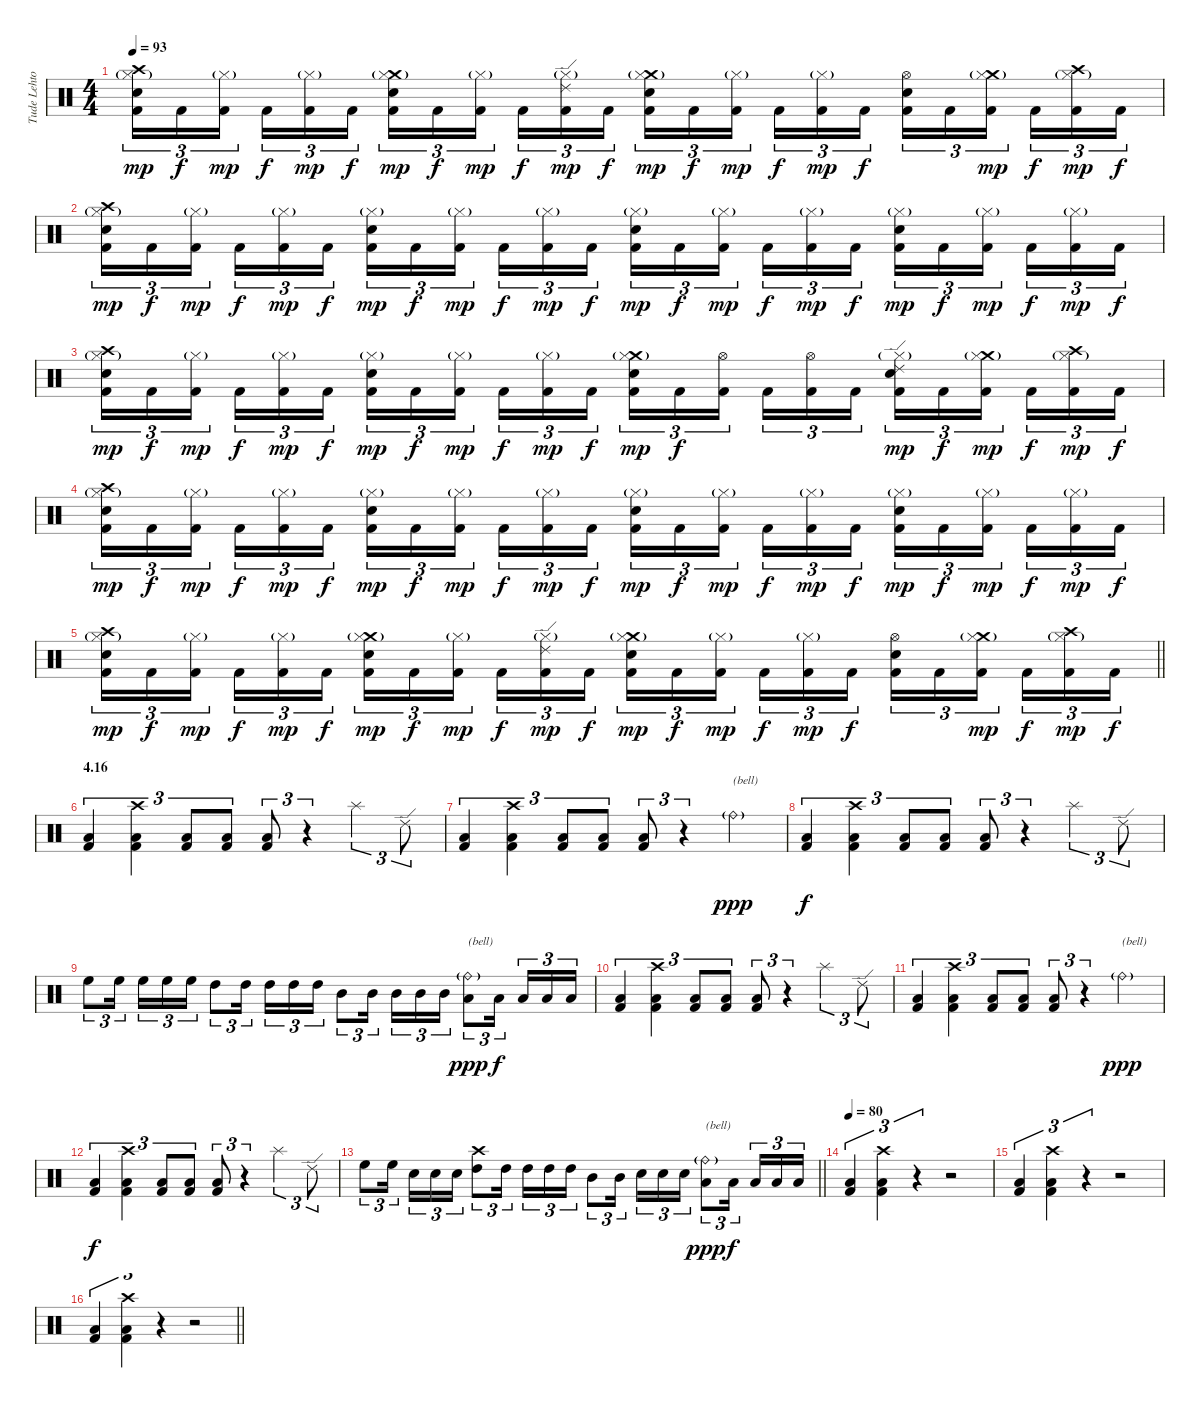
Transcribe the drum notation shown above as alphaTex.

\track ("Tude Lehtonen" "Tude Lehto") {instrument percussion}
\staff {score}
\articulation defaults
\ts (4 4)
\tempo 93
\clef neutral
\ks c
("Crash high (hit)" "Hi-Hat (closed)"{g} "Electric Snare (hit)" "Kick (hit) 2").16{tu (3 2) dy mp} "Kick (hit) 2".16{tu (3 2) dy f} ("Hi-Hat (closed)"{g} "Kick (hit) 2").16{tu (3 2) dy mp} "Kick (hit) 2".16{tu (3 2) dy f} ("Hi-Hat (closed)"{g} "Kick (hit) 2").16{tu (3 2) dy mp} "Kick (hit) 2".16{tu (3 2) dy f} ("Crash medium (hit)" "Hi-Hat (closed)"{g} "Electric Snare (hit)" "Kick (hit) 2").16{tu (3 2) dy mp} "Kick (hit) 2".16{tu (3 2) dy f} ("Hi-Hat (closed)"{g} "Kick (hit) 2").16{tu (3 2) dy mp} "Kick (hit) 2".16{tu (3 2) dy f} ("Ride (edge) 2" "Hi-Hat (closed)"{g} "Kick (hit) 2").16{tu (3 2) dy mp} "Kick (hit) 2".16{tu (3 2) dy f} ("Crash medium (hit)" "Hi-Hat (closed)"{g} "Electric Snare (hit)" "Kick (hit) 2").16{tu (3 2) dy mp} "Kick (hit) 2".16{tu (3 2) dy f} ("Hi-Hat (closed)"{g} "Kick (hit) 2").16{tu (3 2) dy mp} "Kick (hit) 2".16{tu (3 2) dy f} ("Hi-Hat (closed)"{g} "Kick (hit) 2").16{tu (3 2) dy mp} "Kick (hit) 2".16{tu (3 2) dy f} ("Hi-Hat (open)" "Electric Snare (hit)" "Kick (hit) 2").16{tu (3 2)} "Kick (hit) 2".16{tu (3 2)} ("Crash medium (hit)" "Hi-Hat (closed)"{g} "Kick (hit) 2").16{tu (3 2) dy mp} "Kick (hit) 2".16{tu (3 2) dy f} ("Crash high (hit)" "Hi-Hat (closed)"{g} "Kick (hit) 2").16{tu (3 2) dy mp} "Kick (hit) 2".16{tu (3 2) dy f} |
("Crash high (hit)" "Hi-Hat (closed)"{g} "Electric Snare (hit)" "Kick (hit) 2").16{tu (3 2) dy mp} "Kick (hit) 2".16{tu (3 2) dy f} ("Hi-Hat (closed)"{g} "Kick (hit) 2").16{tu (3 2) dy mp} "Kick (hit) 2".16{tu (3 2) dy f} ("Hi-Hat (closed)"{g} "Kick (hit) 2").16{tu (3 2) dy mp} "Kick (hit) 2".16{tu (3 2) dy f} ("Hi-Hat (closed)"{g} "Electric Snare (hit)" "Kick (hit) 2").16{tu (3 2) dy mp} "Kick (hit) 2".16{tu (3 2) dy f} ("Hi-Hat (closed)"{g} "Kick (hit) 2").16{tu (3 2) dy mp} "Kick (hit) 2".16{tu (3 2) dy f} ("Hi-Hat (closed)"{g} "Kick (hit) 2").16{tu (3 2) dy mp} "Kick (hit) 2".16{tu (3 2) dy f} ("Hi-Hat (closed)"{g} "Electric Snare (hit)" "Kick (hit) 2").16{tu (3 2) dy mp} "Kick (hit) 2".16{tu (3 2) dy f} ("Hi-Hat (closed)"{g} "Kick (hit) 2").16{tu (3 2) dy mp} "Kick (hit) 2".16{tu (3 2) dy f} ("Hi-Hat (closed)"{g} "Kick (hit) 2").16{tu (3 2) dy mp} "Kick (hit) 2".16{tu (3 2) dy f} ("Hi-Hat (closed)"{g} "Electric Snare (hit)" "Kick (hit) 2").16{tu (3 2) dy mp} "Kick (hit) 2".16{tu (3 2) dy f} ("Hi-Hat (closed)"{g} "Kick (hit) 2").16{tu (3 2) dy mp} "Kick (hit) 2".16{tu (3 2) dy f} ("Hi-Hat (closed)"{g} "Kick (hit) 2").16{tu (3 2) dy mp} "Kick (hit) 2".16{tu (3 2) dy f} |
("Crash high (hit)" "Hi-Hat (closed)"{g} "Electric Snare (hit)" "Kick (hit) 2").16{tu (3 2) dy mp} "Kick (hit) 2".16{tu (3 2) dy f} ("Hi-Hat (closed)"{g} "Kick (hit) 2").16{tu (3 2) dy mp} "Kick (hit) 2".16{tu (3 2) dy f} ("Hi-Hat (closed)"{g} "Kick (hit) 2").16{tu (3 2) dy mp} "Kick (hit) 2".16{tu (3 2) dy f} ("Hi-Hat (closed)"{g} "Electric Snare (hit)" "Kick (hit) 2").16{tu (3 2) dy mp} "Kick (hit) 2".16{tu (3 2) dy f} ("Hi-Hat (closed)"{g} "Kick (hit) 2").16{tu (3 2) dy mp} "Kick (hit) 2".16{tu (3 2) dy f} ("Hi-Hat (closed)"{g} "Kick (hit) 2").16{tu (3 2) dy mp} "Kick (hit) 2".16{tu (3 2) dy f} ("Crash medium (hit)" "Hi-Hat (closed)"{g} "Electric Snare (hit)" "Kick (hit) 2").16{tu (3 2) dy mp} "Kick (hit) 2".16{tu (3 2) dy f} ("Hi-Hat (open)" "Kick (hit) 2").16{tu (3 2)} "Kick (hit) 2".16{tu (3 2)} ("Hi-Hat (open)" "Kick (hit) 2").16{tu (3 2)} "Kick (hit) 2".16{tu (3 2)} ("Ride (edge) 2" "Hi-Hat (closed)"{g} "Electric Snare (hit)" "Kick (hit) 2").16{tu (3 2) dy mp} "Kick (hit) 2".16{tu (3 2) dy f} ("Crash medium (hit)" "Hi-Hat (closed)"{g} "Kick (hit) 2").16{tu (3 2) dy mp} "Kick (hit) 2".16{tu (3 2) dy f} ("Crash high (hit)" "Hi-Hat (closed)"{g} "Kick (hit) 2").16{tu (3 2) dy mp} "Kick (hit) 2".16{tu (3 2) dy f} |
("Crash high (hit)" "Hi-Hat (closed)"{g} "Electric Snare (hit)" "Kick (hit) 2").16{tu (3 2) dy mp} "Kick (hit) 2".16{tu (3 2) dy f} ("Hi-Hat (closed)"{g} "Kick (hit) 2").16{tu (3 2) dy mp} "Kick (hit) 2".16{tu (3 2) dy f} ("Hi-Hat (closed)"{g} "Kick (hit) 2").16{tu (3 2) dy mp} "Kick (hit) 2".16{tu (3 2) dy f} ("Hi-Hat (closed)"{g} "Electric Snare (hit)" "Kick (hit) 2").16{tu (3 2) dy mp} "Kick (hit) 2".16{tu (3 2) dy f} ("Hi-Hat (closed)"{g} "Kick (hit) 2").16{tu (3 2) dy mp} "Kick (hit) 2".16{tu (3 2) dy f} ("Hi-Hat (closed)"{g} "Kick (hit) 2").16{tu (3 2) dy mp} "Kick (hit) 2".16{tu (3 2) dy f} ("Hi-Hat (closed)"{g} "Electric Snare (hit)" "Kick (hit) 2").16{tu (3 2) dy mp} "Kick (hit) 2".16{tu (3 2) dy f} ("Hi-Hat (closed)"{g} "Kick (hit) 2").16{tu (3 2) dy mp} "Kick (hit) 2".16{tu (3 2) dy f} ("Hi-Hat (closed)"{g} "Kick (hit) 2").16{tu (3 2) dy mp} "Kick (hit) 2".16{tu (3 2) dy f} ("Hi-Hat (closed)"{g} "Electric Snare (hit)" "Kick (hit) 2").16{tu (3 2) dy mp} "Kick (hit) 2".16{tu (3 2) dy f} ("Hi-Hat (closed)"{g} "Kick (hit) 2").16{tu (3 2) dy mp} "Kick (hit) 2".16{tu (3 2) dy f} ("Hi-Hat (closed)"{g} "Kick (hit) 2").16{tu (3 2) dy mp} "Kick (hit) 2".16{tu (3 2) dy f} |
\barLineRight lightlight
("Crash high (hit)" "Hi-Hat (closed)"{g} "Electric Snare (hit)" "Kick (hit) 2").16{tu (3 2) dy mp} "Kick (hit) 2".16{tu (3 2) dy f} ("Hi-Hat (closed)"{g} "Kick (hit) 2").16{tu (3 2) dy mp} "Kick (hit) 2".16{tu (3 2) dy f} ("Hi-Hat (closed)"{g} "Kick (hit) 2").16{tu (3 2) dy mp} "Kick (hit) 2".16{tu (3 2) dy f} ("Crash medium (hit)" "Hi-Hat (closed)"{g} "Electric Snare (hit)" "Kick (hit) 2").16{tu (3 2) dy mp} "Kick (hit) 2".16{tu (3 2) dy f} ("Hi-Hat (closed)"{g} "Kick (hit) 2").16{tu (3 2) dy mp} "Kick (hit) 2".16{tu (3 2) dy f} ("Ride (edge) 2" "Hi-Hat (closed)"{g} "Kick (hit) 2").16{tu (3 2) dy mp} "Kick (hit) 2".16{tu (3 2) dy f} ("Crash medium (hit)" "Hi-Hat (closed)"{g} "Electric Snare (hit)" "Kick (hit) 2").16{tu (3 2) dy mp} "Kick (hit) 2".16{tu (3 2) dy f} ("Hi-Hat (closed)"{g} "Kick (hit) 2").16{tu (3 2) dy mp} "Kick (hit) 2".16{tu (3 2) dy f} ("Hi-Hat (closed)"{g} "Kick (hit) 2").16{tu (3 2) dy mp} "Kick (hit) 2".16{tu (3 2) dy f} ("Hi-Hat (open)" "Electric Snare (hit)" "Kick (hit) 2").16{tu (3 2)} "Kick (hit) 2".16{tu (3 2)} ("Crash medium (hit)" "Hi-Hat (closed)"{g} "Kick (hit) 2").16{tu (3 2) dy mp} "Kick (hit) 2".16{tu (3 2) dy f} ("Crash high (hit)" "Hi-Hat (closed)"{g} "Kick (hit) 2").16{tu (3 2) dy mp} "Kick (hit) 2".16{tu (3 2) dy f} |
\section ("" "4.16")
("Low Floor Tom (hit)" "Kick (hit) 2").4{tu (3 2)} ("Crash high (hit)" "Low Floor Tom (hit)" "Kick (hit) 2").4{tu (3 2)} ("Low Floor Tom (hit)" "Kick (hit) 2").8{tu (3 2)} ("Low Floor Tom (hit)" "Kick (hit) 2").8{tu (3 2)} ("Low Floor Tom (hit)" "Kick (hit) 2").8{tu (3 2)} r.4{tu (3 2)} "Splash (hit)".4{tu (3 2)} "Ride (edge) 2".8{tu (3 2)} |
("Low Floor Tom (hit)" "Kick (hit) 2").4{tu (3 2)} ("Crash high (hit)" "Low Floor Tom (hit)" "Kick (hit) 2").4{tu (3 2)} ("Low Floor Tom (hit)" "Kick (hit) 2").8{tu (3 2)} ("Low Floor Tom (hit)" "Kick (hit) 2").8{tu (3 2)} ("Low Floor Tom (hit)" "Kick (hit) 2").8{tu (3 2)} r.4{tu (3 2)} "Ride (bell)"{g}.4{txt "(bell)" dy ppp} |
("Low Floor Tom (hit)" "Kick (hit) 2").4{tu (3 2) dy f} ("Crash high (hit)" "Low Floor Tom (hit)" "Kick (hit) 2").4{tu (3 2)} ("Low Floor Tom (hit)" "Kick (hit) 2").8{tu (3 2)} ("Low Floor Tom (hit)" "Kick (hit) 2").8{tu (3 2)} ("Low Floor Tom (hit)" "Kick (hit) 2").8{tu (3 2)} r.4{tu (3 2)} "Splash (hit)".4{tu (3 2)} "Ride (edge) 2".8{tu (3 2)} |
"High Floor Tom (hit)".8{tu (3 2)} "High Floor Tom (hit)".16{tu (3 2)} "High Floor Tom (hit)".16{tu (3 2)} "High Floor Tom (hit)".16{tu (3 2)} "High Floor Tom (hit)".16{tu (3 2)} "High Tom (hit)".8{tu (3 2)} "High Tom (hit)".16{tu (3 2)} "High Tom (hit)".16{tu (3 2)} "High Tom (hit)".16{tu (3 2)} "High Tom (hit)".16{tu (3 2)} "Mid Tom (hit)".8{tu (3 2)} "Mid Tom (hit)".16{tu (3 2)} "Mid Tom (hit)".16{tu (3 2)} "Mid Tom (hit)".16{tu (3 2)} "Mid Tom (hit)".16{tu (3 2)} ("Ride (bell)"{g} "Low Floor Tom (hit)").8{tu (3 2) txt "(bell)" dy ppp} "Low Floor Tom (hit)".16{tu (3 2) dy f} "Low Floor Tom (hit)".16{tu (3 2)} "Low Floor Tom (hit)".16{tu (3 2)} "Low Floor Tom (hit)".16{tu (3 2)} |
("Low Floor Tom (hit)" "Kick (hit) 2").4{tu (3 2)} ("Crash high (hit)" "Low Floor Tom (hit)" "Kick (hit) 2").4{tu (3 2)} ("Low Floor Tom (hit)" "Kick (hit) 2").8{tu (3 2)} ("Low Floor Tom (hit)" "Kick (hit) 2").8{tu (3 2)} ("Low Floor Tom (hit)" "Kick (hit) 2").8{tu (3 2)} r.4{tu (3 2)} "Splash (hit)".4{tu (3 2)} "Ride (edge) 2".8{tu (3 2)} |
("Low Floor Tom (hit)" "Kick (hit) 2").4{tu (3 2)} ("Crash high (hit)" "Low Floor Tom (hit)" "Kick (hit) 2").4{tu (3 2)} ("Low Floor Tom (hit)" "Kick (hit) 2").8{tu (3 2)} ("Low Floor Tom (hit)" "Kick (hit) 2").8{tu (3 2)} ("Low Floor Tom (hit)" "Kick (hit) 2").8{tu (3 2)} r.4{tu (3 2)} "Ride (bell)"{g}.4{txt "(bell)" dy ppp} |
("Low Floor Tom (hit)" "Kick (hit) 2").4{tu (3 2) dy f} ("Crash high (hit)" "Low Floor Tom (hit)" "Kick (hit) 2").4{tu (3 2)} ("Low Floor Tom (hit)" "Kick (hit) 2").8{tu (3 2)} ("Low Floor Tom (hit)" "Kick (hit) 2").8{tu (3 2)} ("Low Floor Tom (hit)" "Kick (hit) 2").8{tu (3 2)} r.4{tu (3 2)} "Splash (hit)".4{tu (3 2)} "Ride (edge) 2".8{tu (3 2)} |
\barLineRight lightlight "High Floor Tom (hit)".8{tu (3 2)} "High Floor Tom (hit)".16{tu (3 2)} "Electric Snare (hit)".16{tu (3 2)} "Electric Snare (hit)".16{tu (3 2)} "Electric Snare (hit)".16{tu (3 2)}
("Crash high (hit)" "High Tom (hit)").8{tu (3 2)} "High Tom (hit)".16{tu (3 2)} "High Tom (hit)".16{tu (3 2)} "High Tom (hit)".16{tu (3 2)} "High Tom (hit)".16{tu (3 2)} "Mid Tom (hit)".8{tu (3 2)} "Mid Tom (hit)".16{tu (3 2)} "Electric Snare (hit)".16{tu (3 2)} "Electric Snare (hit)".16{tu (3 2)} "Electric Snare (hit)".16{tu (3 2)} ("Ride (bell)"{g} "Low Floor Tom (hit)").8{tu (3 2) txt "(bell)" dy ppp} "Low Floor Tom (hit)".16{tu (3 2) dy f} "Low Floor Tom (hit)".16{tu (3 2)} "Low Floor Tom (hit)".16{tu (3 2)} "Low Floor Tom (hit)".16{tu (3 2)} |
\tempo 80
("Low Floor Tom (hit)" "Kick (hit) 2").4{tu (3 2)} ("Crash high (hit)" "Low Floor Tom (hit)" "Kick (hit) 2").4{tu (3 2)} r.4{tu (3 2)} r.2 |
("Low Floor Tom (hit)" "Kick (hit) 2").4{tu (3 2)} ("Crash high (hit)" "Low Floor Tom (hit)" "Kick (hit) 2").4{tu (3 2)} r.4{tu (3 2)} r.2 |
\barLineRight lightlight
("Low Floor Tom (hit)" "Kick (hit) 2").4{tu (3 2)} ("Crash high (hit)" "Low Floor Tom (hit)" "Kick (hit) 2").4{tu (3 2)} r.4{tu (3 2)} r.2
